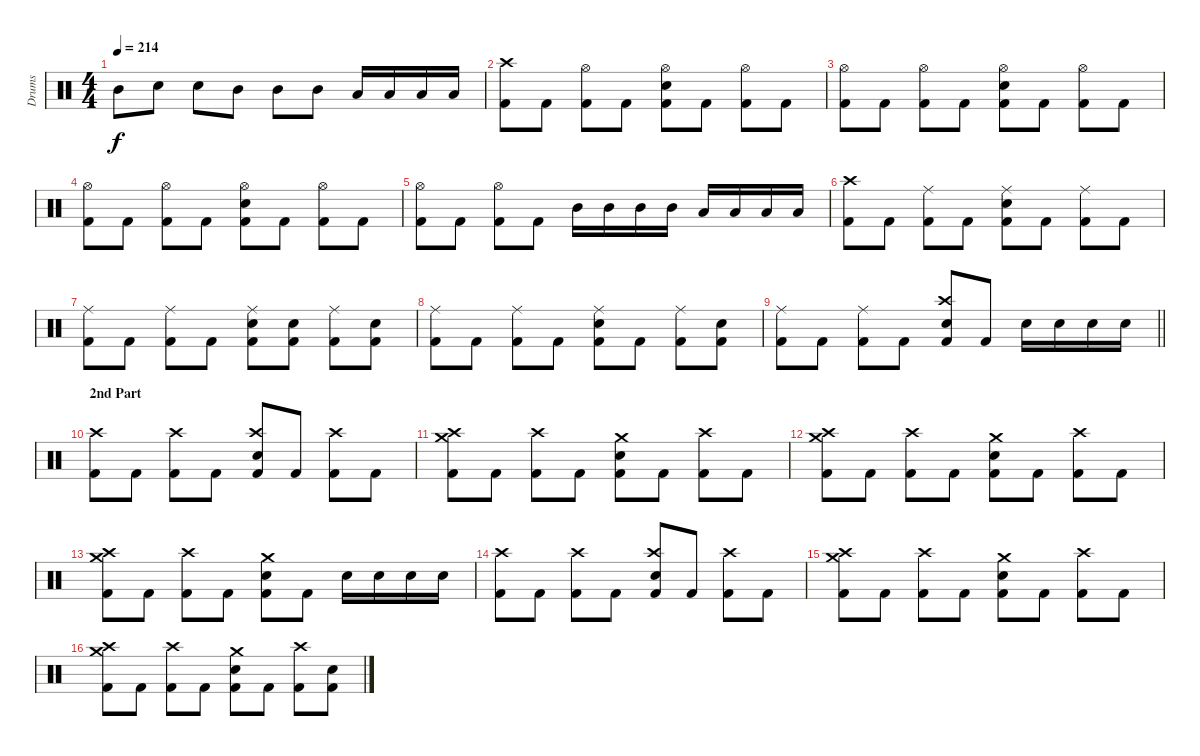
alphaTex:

\track ("Drums" "Drums") {instrument percussion}
\staff {score}
\articulation defaults
\ts (4 4)
\tempo 214
\clef neutral
\ks c "Mid Tom (hit)".8{dy f} "Snare (hit) 2".8 "Snare (hit) 2".8 "Mid Tom (hit)".8 "Mid Tom (hit)".8 "Mid Tom (hit)".8 "Low Tom (hit)".16 "Low Tom (hit)".16 "Low Tom (hit)".16 "Low Tom (hit)".16
|
("Crash high (hit)" "Kick (hit) 2").8 "Kick (hit) 2".8 ("Hi-Hat (open)" "Kick (hit) 2").8 "Kick (hit) 2".8 ("Hi-Hat (open)" "Snare (hit) 2" "Kick (hit) 2").8 "Kick (hit) 2".8 ("Hi-Hat (open)" "Kick (hit) 2").8 "Kick (hit) 2".8 |
("Hi-Hat (open)" "Kick (hit) 2").8 "Kick (hit) 2".8 ("Hi-Hat (open)" "Kick (hit) 2").8 "Kick (hit) 2".8 ("Hi-Hat (open)" "Snare (hit) 2" "Kick (hit) 2").8 "Kick (hit) 2".8 ("Hi-Hat (open)" "Kick (hit) 2").8 "Kick (hit) 2".8 |
("Hi-Hat (open)" "Kick (hit) 2").8 "Kick (hit) 2".8 ("Hi-Hat (open)" "Kick (hit) 2").8 "Kick (hit) 2".8 ("Hi-Hat (open)" "Snare (hit) 2" "Kick (hit) 2").8 "Kick (hit) 2".8 ("Hi-Hat (open)" "Kick (hit) 2").8 "Kick (hit) 2".8 |
("Hi-Hat (open)" "Kick (hit) 2").8 "Kick (hit) 2".8 ("Hi-Hat (open)" "Kick (hit) 2").8 "Kick (hit) 2".8 "Mid Tom (hit)".16 "Mid Tom (hit)".16 "Mid Tom (hit)".16 "Mid Tom (hit)".16 "Low Tom (hit)".16 "Low Tom (hit)".16 "Low Tom (hit)".16 "Low Tom (hit)".16 |
("Crash high (hit)" "Kick (hit) 2").8 "Kick (hit) 2".8 ("Ride (middle)" "Kick (hit) 2").8 "Kick (hit) 2".8 ("Ride (middle)" "Snare (hit) 2" "Kick (hit) 2").8 "Kick (hit) 2".8 ("Ride (middle)" "Kick (hit) 2").8 "Kick (hit) 2".8 |
("Ride (middle)" "Kick (hit) 2").8 "Kick (hit) 2".8 ("Ride (middle)" "Kick (hit) 2").8 "Kick (hit) 2".8 ("Ride (middle)" "Snare (hit) 2" "Kick (hit) 2").8 ("Snare (hit) 2" "Kick (hit) 2").8 ("Ride (middle)" "Kick (hit) 2").8 ("Snare (hit) 2" "Kick (hit) 2").8 |
("Ride (middle)" "Kick (hit) 2").8 "Kick (hit) 2".8 ("Ride (middle)" "Kick (hit) 2").8 "Kick (hit) 2".8 ("Ride (middle)" "Snare (hit) 2" "Kick (hit) 2").8 "Kick (hit) 2".8 ("Ride (middle)" "Kick (hit) 2").8 ("Snare (hit) 2" "Kick (hit) 2").8 |
\barLineRight lightlight
("Ride (middle)" "Kick (hit) 2").8 "Kick (hit) 2".8 ("Ride (middle)" "Kick (hit) 2").8 "Kick (hit) 2".8 ("Crash high (hit)" "Snare (hit) 2" "Kick (hit) 2").8 "Kick (hit) 2".8 "Snare (hit) 2".16 "Snare (hit) 2".16 "Snare (hit) 2".16 "Snare (hit) 2".16 |
\section ("" "2nd Part")
("Crash high (hit)" "Kick (hit) 2").8 "Kick (hit) 2".8 ("Crash high (hit)" "Kick (hit) 2").8 "Kick (hit) 2".8 ("Crash high (hit)" "Snare (hit) 2" "Kick (hit) 2").8 "Kick (hit) 2".8 ("Crash high (hit)" "Kick (hit) 2").8 "Kick (hit) 2".8 |
("Crash high (hit)" "Crash medium (hit)" "Kick (hit) 2").8 "Kick (hit) 2".8 ("Crash high (hit)" "Kick (hit) 2").8 "Kick (hit) 2".8 ("Crash medium (hit)" "Snare (hit) 2" "Kick (hit) 2").8 "Kick (hit) 2".8 ("Crash high (hit)" "Kick (hit) 2").8 "Kick (hit) 2".8 |
("Crash high (hit)" "Crash medium (hit)" "Kick (hit) 2").8 "Kick (hit) 2".8 ("Crash high (hit)" "Kick (hit) 2").8 "Kick (hit) 2".8 ("Crash medium (hit)" "Snare (hit) 2" "Kick (hit) 2").8 "Kick (hit) 2".8 ("Crash high (hit)" "Kick (hit) 2").8 "Kick (hit) 2".8 |
("Crash high (hit)" "Crash medium (hit)" "Kick (hit) 2").8 "Kick (hit) 2".8 ("Crash high (hit)" "Kick (hit) 2").8 "Kick (hit) 2".8 ("Crash medium (hit)" "Snare (hit) 2" "Kick (hit) 2").8 "Kick (hit) 2".8 "Snare (hit) 2".16 "Snare (hit) 2".16 "Snare (hit) 2".16 "Snare (hit) 2".16 |
("Crash high (hit)" "Kick (hit) 2").8 "Kick (hit) 2".8 ("Crash high (hit)" "Kick (hit) 2").8 "Kick (hit) 2".8 ("Crash high (hit)" "Snare (hit) 2" "Kick (hit) 2").8 "Kick (hit) 2".8 ("Crash high (hit)" "Kick (hit) 2").8 "Kick (hit) 2".8 |
("Crash high (hit)" "Crash medium (hit)" "Kick (hit) 2").8 "Kick (hit) 2".8 ("Crash high (hit)" "Kick (hit) 2").8 "Kick (hit) 2".8 ("Crash medium (hit)" "Snare (hit) 2" "Kick (hit) 2").8 "Kick (hit) 2".8 ("Crash high (hit)" "Kick (hit) 2").8 "Kick (hit) 2".8 |
("Crash high (hit)" "Crash medium (hit)" "Kick (hit) 2").8 "Kick (hit) 2".8 ("Crash high (hit)" "Kick (hit) 2").8 "Kick (hit) 2".8 ("Crash medium (hit)" "Snare (hit) 2" "Kick (hit) 2").8 "Kick (hit) 2".8 ("Crash high (hit)" "Kick (hit) 2").8 ("Snare (hit) 2" "Kick (hit) 2").8
